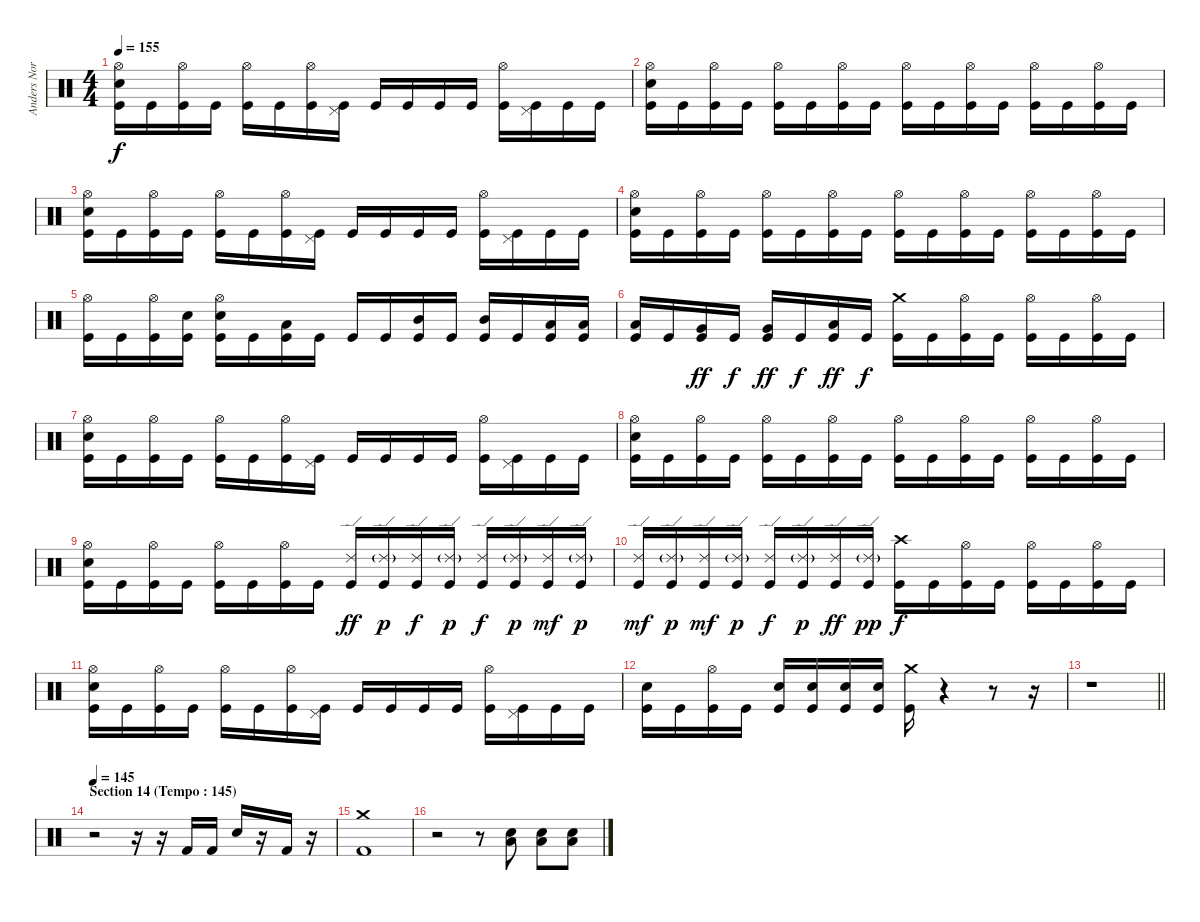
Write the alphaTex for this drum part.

\track ("Anders Nordin" "Anders Nor") {instrument percussion}
\staff {score}
\articulation defaults
\ts (4 4)
\tempo 155
\clef neutral
\ks c
("Hi-Hat (open)" "Snare (hit) 2" "Kick (hit)").16{dy f} "Kick (hit)".16 ("Hi-Hat (open)" "Kick (hit)").16 "Kick (hit)".16 ("Hi-Hat (open)" "Kick (hit)").16 "Kick (hit)".16 ("Hi-Hat (open)" "Kick (hit)").16 ("Pedal Hi-Hat (hit)" "Kick (hit)").16 "Kick (hit)".16 "Kick (hit)".16 "Kick (hit)".16 "Kick (hit)".16 ("Hi-Hat (open)" "Kick (hit)").16 ("Pedal Hi-Hat (hit)" "Kick (hit)").16 "Kick (hit)".16 "Kick (hit)".16 |
("Snare (hit) 2" "Hi-Hat (open)" "Kick (hit)").16 "Kick (hit)".16 ("Hi-Hat (open)" "Kick (hit)").16 "Kick (hit)".16 ("Hi-Hat (open)" "Kick (hit)").16 "Kick (hit)".16 ("Hi-Hat (open)" "Kick (hit)").16 "Kick (hit)".16 ("Hi-Hat (open)" "Kick (hit)").16 "Kick (hit)".16 ("Hi-Hat (open)" "Kick (hit)").16 "Kick (hit)".16 ("Hi-Hat (open)" "Kick (hit)").16 "Kick (hit)".16 ("Hi-Hat (open)" "Kick (hit)").16 "Kick (hit)".16 |
("Hi-Hat (open)" "Snare (hit) 2" "Kick (hit)").16 "Kick (hit)".16 ("Hi-Hat (open)" "Kick (hit)").16 "Kick (hit)".16 ("Hi-Hat (open)" "Kick (hit)").16 "Kick (hit)".16 ("Hi-Hat (open)" "Kick (hit)").16 ("Pedal Hi-Hat (hit)" "Kick (hit)").16 "Kick (hit)".16 "Kick (hit)".16 "Kick (hit)".16 "Kick (hit)".16 ("Hi-Hat (open)" "Kick (hit)").16 ("Pedal Hi-Hat (hit)" "Kick (hit)").16 "Kick (hit)".16 "Kick (hit)".16 |
("Snare (hit) 2" "Hi-Hat (open)" "Kick (hit)").16 "Kick (hit)".16 ("Hi-Hat (open)" "Kick (hit)").16 "Kick (hit)".16 ("Hi-Hat (open)" "Kick (hit)").16 "Kick (hit)".16 ("Hi-Hat (open)" "Kick (hit)").16 "Kick (hit)".16 ("Hi-Hat (open)" "Kick (hit)").16 "Kick (hit)".16 ("Hi-Hat (open)" "Kick (hit)").16 "Kick (hit)".16 ("Hi-Hat (open)" "Kick (hit)").16 "Kick (hit)".16 ("Hi-Hat (open)" "Kick (hit)").16 "Kick (hit)".16 |
("Hi-Hat (open)" "Kick (hit)").16 "Kick (hit)".16 ("Hi-Hat (open)" "Kick (hit)").16 ("Snare (hit) 2" "Kick (hit)").16 ("Snare (hit) 2" "Hi-Hat (open)" "Kick (hit)").16 "Kick (hit)".16 ("Low Tom (hit)" "Kick (hit)").16 "Kick (hit)".16 "Kick (hit)".16 "Kick (hit)".16 ("Mid Tom (hit)" "Kick (hit)").16 "Kick (hit)".16 ("Mid Tom (hit)" "Kick (hit)").16 "Kick (hit)".16 ("Low Tom (hit)" "Kick (hit)").16 ("Low Tom (hit)" "Kick (hit)").16 |
("Low Tom (hit)" "Kick (hit)").16 "Kick (hit)".16 ("Very Low Tom (hit)" "Kick (hit)").16{dy ff} "Kick (hit)".16{dy f} ("Very Low Tom (hit)" "Kick (hit)").16{dy ff} "Kick (hit)".16{dy f} ("Low Floor Tom (hit)" "Kick (hit)").16{dy ff} "Kick (hit)".16{dy f} ("Crash medium (hit)" "Kick (hit)").16 "Kick (hit)".16 ("Hi-Hat (open)" "Kick (hit)").16 "Kick (hit)".16 ("Hi-Hat (open)" "Kick (hit)").16 "Kick (hit)".16 ("Hi-Hat (open)" "Kick (hit)").16 "Kick (hit)".16 |
("Hi-Hat (open)" "Snare (hit) 2" "Kick (hit)").16 "Kick (hit)".16 ("Hi-Hat (open)" "Kick (hit)").16 "Kick (hit)".16 ("Hi-Hat (open)" "Kick (hit)").16 "Kick (hit)".16 ("Hi-Hat (open)" "Kick (hit)").16 ("Pedal Hi-Hat (hit)" "Kick (hit)").16 "Kick (hit)".16 "Kick (hit)".16 "Kick (hit)".16 "Kick (hit)".16 ("Hi-Hat (open)" "Kick (hit)").16 ("Pedal Hi-Hat (hit)" "Kick (hit)").16 "Kick (hit)".16 "Kick (hit)".16 |
("Snare (hit) 2" "Hi-Hat (open)" "Kick (hit)").16 "Kick (hit)".16 ("Hi-Hat (open)" "Kick (hit)").16 "Kick (hit)".16 ("Hi-Hat (open)" "Kick (hit)").16 "Kick (hit)".16 ("Hi-Hat (open)" "Kick (hit)").16 "Kick (hit)".16 ("Hi-Hat (open)" "Kick (hit)").16 "Kick (hit)".16 ("Hi-Hat (open)" "Kick (hit)").16 "Kick (hit)".16 ("Hi-Hat (open)" "Kick (hit)").16 "Kick (hit)".16 ("Hi-Hat (open)" "Kick (hit)").16 "Kick (hit)".16 |
("Hi-Hat (open)" "Snare (hit) 2" "Kick (hit)").16 "Kick (hit)".16 ("Hi-Hat (open)" "Kick (hit)").16 "Kick (hit)".16 ("Hi-Hat (open)" "Kick (hit)").16 "Kick (hit)".16 ("Hi-Hat (open)" "Kick (hit)").16 "Kick (hit)".16 ("Ride (edge) 2" "Kick (hit)").16{dy ff} ("Ride (edge) 2"{g} "Kick (hit)").16{dy p} ("Ride (edge) 2" "Kick (hit)").16{dy f} ("Ride (edge) 2"{g} "Kick (hit)").16{dy p} ("Ride (edge) 2" "Kick (hit)").16{dy f} ("Ride (edge) 2"{g} "Kick (hit)").16{dy p} ("Ride (edge) 2" "Kick (hit)").16{dy mf} ("Ride (edge) 2"{g} "Kick (hit)").16{dy p} |
("Ride (edge) 2" "Kick (hit)").16{dy mf} ("Ride (edge) 2"{g} "Kick (hit)").16{dy p} ("Ride (edge) 2" "Kick (hit)").16{dy mf} ("Ride (edge) 2"{g} "Kick (hit)").16{dy p} ("Ride (edge) 2" "Kick (hit)").16{dy f} ("Ride (edge) 2"{g} "Kick (hit)").16{dy p} ("Ride (edge) 2" "Kick (hit)").16{dy ff} ("Ride (edge) 2"{g} "Kick (hit)").16{dy pp} ("Crash high (hit)" "Kick (hit)").16{dy f} "Kick (hit)".16 ("Hi-Hat (open)" "Kick (hit)").16 "Kick (hit)".16 ("Hi-Hat (open)" "Kick (hit)").16 "Kick (hit)".16 ("Hi-Hat (open)" "Kick (hit)").16 "Kick (hit)".16 |
("Hi-Hat (open)" "Snare (hit) 2" "Kick (hit)").16 "Kick (hit)".16 ("Hi-Hat (open)" "Kick (hit)").16 "Kick (hit)".16 ("Hi-Hat (open)" "Kick (hit)").16 "Kick (hit)".16 ("Hi-Hat (open)" "Kick (hit)").16 ("Pedal Hi-Hat (hit)" "Kick (hit)").16 "Kick (hit)".16 "Kick (hit)".16 "Kick (hit)".16 "Kick (hit)".16 ("Hi-Hat (open)" "Kick (hit)").16 ("Pedal Hi-Hat (hit)" "Kick (hit)").16 "Kick (hit)".16 "Kick (hit)".16 |
("Snare (hit) 2" "Kick (hit)").16 "Kick (hit)".16 ("Hi-Hat (open)" "Kick (hit)").16 "Kick (hit)".16 ("Snare (hit) 2" "Kick (hit)").16 ("Snare (hit) 2" "Kick (hit)").16 ("Snare (hit) 2" "Kick (hit)").16 ("Snare (hit) 2" "Kick (hit)").16 ("Crash medium (hit)" "Kick (hit)").16 r.4{volume 0} r.8 r.16 |
\barLineRight lightlight
r.1{volume 16} |
\section ("" "Section 14 (Tempo : 145)")
\tempo 145
r.2 r.16 r.16 "Kick (hit) 2".16 "Kick (hit) 2".16 "Snare (hit) 2".16 r.16 "Kick (hit) 2".16 r.16 |
("Crash medium (hit)" "Kick (hit) 2").1 |
r.2 r.8 ("Snare (hit) 2" "Low Tom (hit)").8 ("Snare (hit) 2" "Low Tom (hit)").8 ("Snare (hit) 2" "Low Tom (hit)").8
